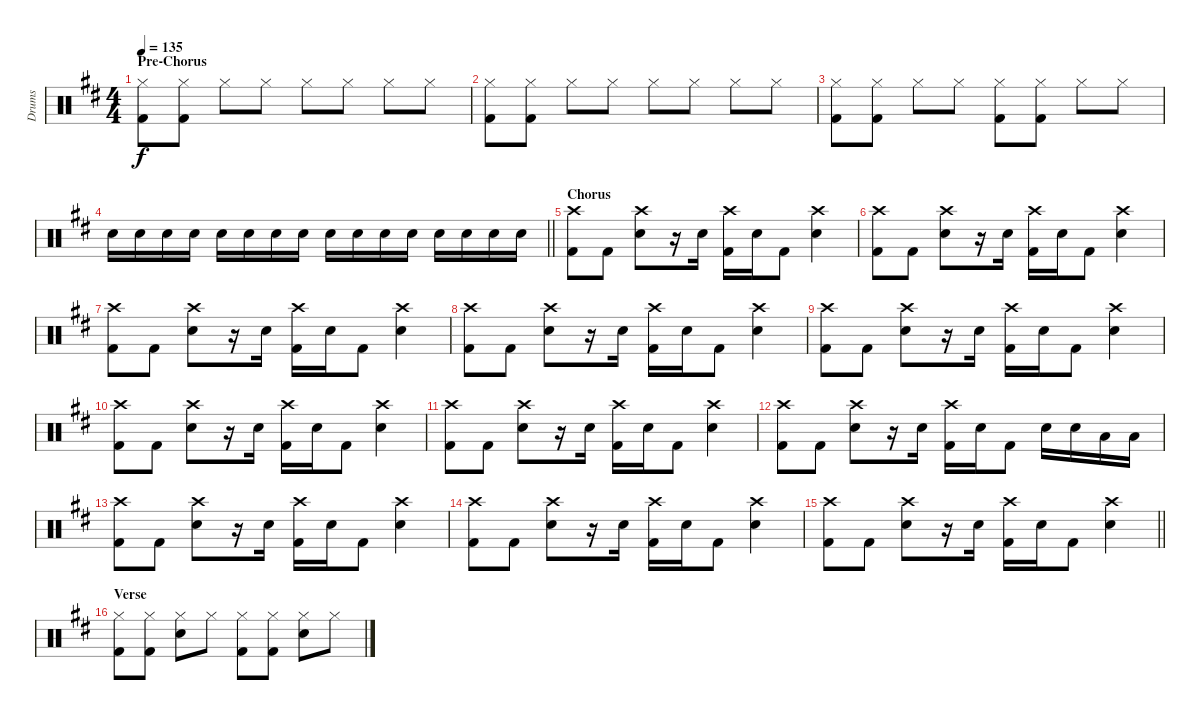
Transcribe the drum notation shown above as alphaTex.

\track ("Drums" "Drums") {instrument percussion}
\staff {score}
\articulation defaults
\ts (4 4)
\section ("" "Pre-Chorus")
\tempo 135
\clef neutral
\ks d
("Hi-Hat (closed)" "Kick (hit) 2").8{dy f} ("Hi-Hat (closed)" "Kick (hit) 2").8 "Hi-Hat (closed)".8 "Hi-Hat (closed)".8 "Hi-Hat (closed)".8 "Hi-Hat (closed)".8 "Hi-Hat (closed)".8 "Hi-Hat (closed)".8 |
("Hi-Hat (closed)" "Kick (hit) 2").8 ("Hi-Hat (closed)" "Kick (hit) 2").8 "Hi-Hat (closed)".8 "Hi-Hat (closed)".8 "Hi-Hat (closed)".8 "Hi-Hat (closed)".8 "Hi-Hat (closed)".8 "Hi-Hat (closed)".8 |
("Hi-Hat (closed)" "Kick (hit) 2").8 ("Hi-Hat (closed)" "Kick (hit) 2").8 "Hi-Hat (closed)".8 "Hi-Hat (closed)".8 ("Hi-Hat (closed)" "Kick (hit) 2").8 ("Hi-Hat (closed)" "Kick (hit) 2").8 "Hi-Hat (closed)".8 "Hi-Hat (closed)".8 |
\barLineRight lightlight "Snare (hit) 2".16 "Snare (hit) 2".16 "Snare (hit) 2".16 "Snare (hit) 2".16 "Snare (hit) 2".16 "Snare (hit) 2".16 "Snare (hit) 2".16 "Snare (hit) 2".16 "Snare (hit) 2".16 "Snare (hit) 2".16 "Snare (hit) 2".16 "Snare (hit) 2".16 "Snare (hit) 2".16 "Snare (hit) 2".16 "Snare (hit) 2".16 "Snare (hit) 2".16
|
\section ("" "Chorus")
("Crash high (hit)" "Kick (hit) 2").8 "Kick (hit) 2".8 ("Crash high (hit)" "Snare (hit) 2").8 r.16 "Snare (hit) 2".16 ("Crash high (hit)" "Kick (hit) 2").16 "Snare (hit) 2".16 "Kick (hit) 2".8 ("Crash high (hit)" "Snare (hit) 2").4 |
("Crash high (hit)" "Kick (hit) 2").8 "Kick (hit) 2".8 ("Crash high (hit)" "Snare (hit) 2").8 r.16 "Snare (hit) 2".16 ("Crash high (hit)" "Kick (hit) 2").16 "Snare (hit) 2".16 "Kick (hit) 2".8 ("Crash high (hit)" "Snare (hit) 2").4 |
("Crash high (hit)" "Kick (hit) 2").8 "Kick (hit) 2".8 ("Crash high (hit)" "Snare (hit) 2").8 r.16 "Snare (hit) 2".16 ("Crash high (hit)" "Kick (hit) 2").16 "Snare (hit) 2".16 "Kick (hit) 2".8 ("Crash high (hit)" "Snare (hit) 2").4 |
("Crash high (hit)" "Kick (hit) 2").8 "Kick (hit) 2".8 ("Crash high (hit)" "Snare (hit) 2").8 r.16 "Snare (hit) 2".16 ("Crash high (hit)" "Kick (hit) 2").16 "Snare (hit) 2".16 "Kick (hit) 2".8 ("Crash high (hit)" "Snare (hit) 2").4 |
("Crash high (hit)" "Kick (hit) 2").8 "Kick (hit) 2".8 ("Crash high (hit)" "Snare (hit) 2").8 r.16 "Snare (hit) 2".16 ("Crash high (hit)" "Kick (hit) 2").16 "Snare (hit) 2".16 "Kick (hit) 2".8 ("Crash high (hit)" "Snare (hit) 2").4 |
("Crash high (hit)" "Kick (hit) 2").8 "Kick (hit) 2".8 ("Crash high (hit)" "Snare (hit) 2").8 r.16 "Snare (hit) 2".16 ("Crash high (hit)" "Kick (hit) 2").16 "Snare (hit) 2".16 "Kick (hit) 2".8 ("Crash high (hit)" "Snare (hit) 2").4 |
("Crash high (hit)" "Kick (hit) 2").8 "Kick (hit) 2".8 ("Crash high (hit)" "Snare (hit) 2").8 r.16 "Snare (hit) 2".16 ("Crash high (hit)" "Kick (hit) 2").16 "Snare (hit) 2".16 "Kick (hit) 2".8 ("Crash high (hit)" "Snare (hit) 2").4 |
("Crash high (hit)" "Kick (hit) 2").8 "Kick (hit) 2".8 ("Crash high (hit)" "Snare (hit) 2").8 r.16 "Snare (hit) 2".16 ("Crash high (hit)" "Kick (hit) 2").16 "Snare (hit) 2".16 "Kick (hit) 2".8 "Snare (hit) 2".16 "Snare (hit) 2".16 "Low Tom (hit)".16 "Low Tom (hit)".16 |
("Crash high (hit)" "Kick (hit) 2").8 "Kick (hit) 2".8 ("Crash high (hit)" "Snare (hit) 2").8 r.16 "Snare (hit) 2".16 ("Crash high (hit)" "Kick (hit) 2").16 "Snare (hit) 2".16 "Kick (hit) 2".8 ("Crash high (hit)" "Snare (hit) 2").4 |
("Crash high (hit)" "Kick (hit) 2").8 "Kick (hit) 2".8 ("Crash high (hit)" "Snare (hit) 2").8 r.16 "Snare (hit) 2".16 ("Crash high (hit)" "Kick (hit) 2").16 "Snare (hit) 2".16 "Kick (hit) 2".8 ("Crash high (hit)" "Snare (hit) 2").4 |
\barLineRight lightlight
("Crash high (hit)" "Kick (hit) 2").8 "Kick (hit) 2".8 ("Crash high (hit)" "Snare (hit) 2").8 r.16 "Snare (hit) 2".16 ("Crash high (hit)" "Kick (hit) 2").16 "Snare (hit) 2".16 "Kick (hit) 2".8 ("Crash high (hit)" "Snare (hit) 2").4 |
\section ("" "Verse")
("Hi-Hat (closed)" "Kick (hit) 2").8 ("Hi-Hat (closed)" "Kick (hit) 2").8 ("Hi-Hat (closed)" "Snare (hit) 2").8 "Hi-Hat (closed)".8 ("Hi-Hat (closed)" "Kick (hit) 2").8 ("Hi-Hat (closed)" "Kick (hit) 2").8 ("Hi-Hat (closed)" "Snare (hit) 2").8 "Hi-Hat (closed)".8
